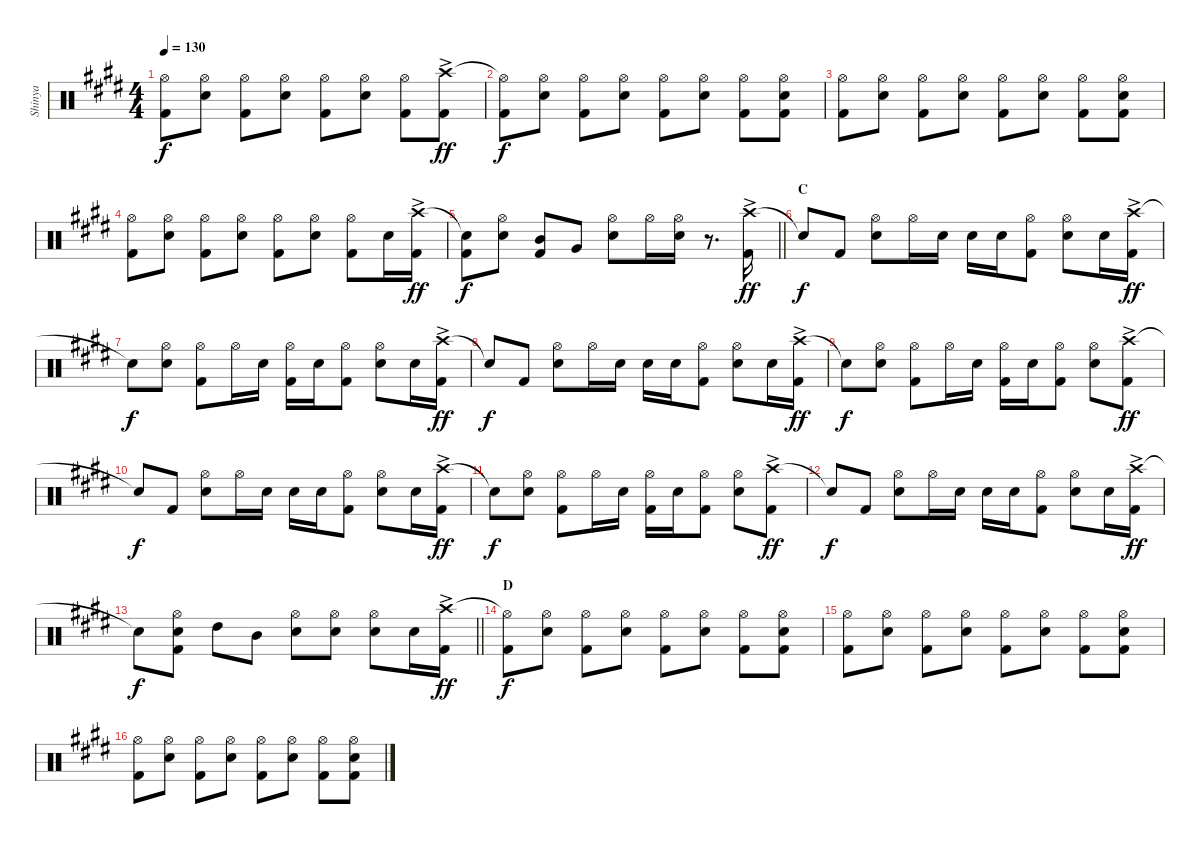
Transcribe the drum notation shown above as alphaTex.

\track ("Shinya" "Shinya") {instrument percussion}
\staff {score}
\articulation defaults
\ts (4 4)
\tempo 130
\clef neutral
\ks c#minor
("Hi-Hat (open)" "Kick (hit) 2").8{dy f} ("Hi-Hat (open)" "Snare (hit) 2").8 ("Hi-Hat (open)" "Kick (hit) 2").8 ("Hi-Hat (open)" "Snare (hit) 2").8 ("Hi-Hat (open)" "Kick (hit) 2").8 ("Hi-Hat (open)" "Snare (hit) 2").8 ("Hi-Hat (open)" "Kick (hit) 2").8 ("Crash high (hit)"{ac} "Kick (hit) 2").8{dy ff} |
("Hi-Hat (open)"{t} "Kick (hit) 2").8{dy f} ("Hi-Hat (open)" "Snare (hit) 2").8 ("Hi-Hat (open)" "Kick (hit) 2").8 ("Hi-Hat (open)" "Snare (hit) 2").8 ("Hi-Hat (open)" "Kick (hit) 2").8 ("Hi-Hat (open)" "Snare (hit) 2").8 ("Hi-Hat (open)" "Kick (hit) 2").8 ("Hi-Hat (open)" "Snare (hit) 2" "Kick (hit) 2").8 |
("Hi-Hat (open)" "Kick (hit) 2").8 ("Hi-Hat (open)" "Snare (hit) 2").8 ("Hi-Hat (open)" "Kick (hit) 2").8 ("Hi-Hat (open)" "Snare (hit) 2").8 ("Hi-Hat (open)" "Kick (hit) 2").8 ("Hi-Hat (open)" "Snare (hit) 2").8 ("Hi-Hat (open)" "Kick (hit) 2").8 ("Hi-Hat (open)" "Snare (hit) 2" "Kick (hit) 2").8 |
("Hi-Hat (open)" "Kick (hit) 2").8 ("Hi-Hat (open)" "Snare (hit) 2").8 ("Hi-Hat (open)" "Kick (hit) 2").8 ("Hi-Hat (open)" "Snare (hit) 2").8 ("Hi-Hat (open)" "Kick (hit) 2").8 ("Hi-Hat (open)" "Snare (hit) 2").8 ("Hi-Hat (open)" "Kick (hit) 2").8 "Snare (hit) 2".16 ("Crash high (hit)"{ac} "Kick (hit) 2").16{dy ff} |
\barLineRight lightlight
("Snare (hit)"{t} "Kick (hit) 2").8{dy f} ("Hi-Hat (open)" "Snare (hit) 2").8 ("Mid Tom (hit)" "Kick (hit) 2").8 "Very Low Tom (hit)".8 ("Hi-Hat (open)" "Snare (hit) 2").8 "Hi-Hat (open)".16 ("Hi-Hat (open)" "Snare (hit) 2").16 r.8{d} ("Crash high (hit)"{ac} "Kick (hit) 2").16{dy ff} |
\section ("" "C")
"Snare (hit)"{t}.8{dy f} "Kick (hit) 2".8 ("Hi-Hat (open)" "Snare (hit) 2").8 "Hi-Hat (open)".16 "Snare (hit) 2".16 "Snare (hit) 2".16 "Snare (hit) 2".16 ("Hi-Hat (open)" "Kick (hit) 2").8 ("Hi-Hat (open)" "Snare (hit) 2").8 "Snare (hit) 2".16 ("Crash high (hit)"{ac} "Kick (hit) 2").16{dy ff} |
"Snare (hit)"{t}.8{dy f} ("Hi-Hat (open)" "Snare (hit) 2").8 ("Hi-Hat (open)" "Kick (hit) 2").8 "Hi-Hat (open)".16 "Snare (hit) 2".16 ("Hi-Hat (open)" "Kick (hit) 2").16 "Snare (hit) 2".16 ("Hi-Hat (open)" "Kick (hit) 2").8 ("Hi-Hat (open)" "Snare (hit) 2").8 "Snare (hit) 2".16 ("Crash high (hit)"{ac} "Kick (hit) 2").16{dy ff} |
"Snare (hit)"{t}.8{dy f} "Kick (hit) 2".8 ("Hi-Hat (open)" "Snare (hit) 2").8 "Hi-Hat (open)".16 "Snare (hit) 2".16 "Snare (hit) 2".16 "Snare (hit) 2".16 ("Hi-Hat (open)" "Kick (hit) 2").8 ("Hi-Hat (open)" "Snare (hit) 2").8 "Snare (hit) 2".16 ("Crash high (hit)"{ac} "Kick (hit) 2").16{dy ff} |
"Snare (hit)"{t}.8{dy f} ("Hi-Hat (open)" "Snare (hit) 2").8 ("Hi-Hat (open)" "Kick (hit) 2").8 "Hi-Hat (open)".16 "Snare (hit) 2".16 ("Hi-Hat (open)" "Kick (hit) 2").16 "Snare (hit) 2".16 ("Hi-Hat (open)" "Kick (hit) 2").8 ("Hi-Hat (open)" "Snare (hit) 2").8 ("Crash high (hit)"{ac} "Kick (hit) 2").8{dy ff} |
"Snare (hit)"{t}.8{dy f} "Kick (hit) 2".8 ("Hi-Hat (open)" "Snare (hit) 2").8 "Hi-Hat (open)".16 "Snare (hit) 2".16 "Snare (hit) 2".16 "Snare (hit) 2".16 ("Hi-Hat (open)" "Kick (hit) 2").8 ("Hi-Hat (open)" "Snare (hit) 2").8 "Snare (hit) 2".16 ("Crash high (hit)"{ac} "Kick (hit) 2").16{dy ff} |
"Snare (hit)"{t}.8{dy f} ("Hi-Hat (open)" "Snare (hit) 2").8 ("Hi-Hat (open)" "Kick (hit) 2").8 "Hi-Hat (open)".16 "Snare (hit) 2".16 ("Hi-Hat (open)" "Kick (hit) 2").16 "Snare (hit) 2".16 ("Hi-Hat (open)" "Kick (hit) 2").8 ("Hi-Hat (open)" "Snare (hit) 2").8 ("Crash high (hit)"{ac} "Kick (hit) 2").8{dy ff} |
"Snare (hit)"{t}.8{dy f} "Kick (hit) 2".8 ("Hi-Hat (open)" "Snare (hit) 2").8 "Hi-Hat (open)".16 "Snare (hit) 2".16 "Snare (hit) 2".16 "Snare (hit) 2".16 ("Hi-Hat (open)" "Kick (hit) 2").8 ("Hi-Hat (open)" "Snare (hit) 2").8 "Snare (hit) 2".16 ("Crash high (hit)"{ac} "Kick (hit) 2").16{dy ff} |
\barLineRight lightlight "Snare (hit)"{t}.8{dy f}
("Hi-Hat (open)" "Snare (hit) 2" "Kick (hit) 2").8 "High Tom (hit)".8 "Mid Tom (hit)".8 ("Hi-Hat (open)" "Snare (hit) 2").8 ("Hi-Hat (open)" "Snare (hit) 2").8 ("Hi-Hat (open)" "Snare (hit) 2").8 "Snare (hit) 2".16 ("Crash high (hit)"{ac} "Kick (hit) 2").16{dy ff} |
\section ("" "D")
("Hi-Hat (open)"{t} "Kick (hit) 2").8{dy f} ("Hi-Hat (open)" "Snare (hit) 2").8 ("Hi-Hat (open)" "Kick (hit) 2").8 ("Hi-Hat (open)" "Snare (hit) 2").8 ("Hi-Hat (open)" "Kick (hit) 2").8 ("Hi-Hat (open)" "Snare (hit) 2").8 ("Hi-Hat (open)" "Kick (hit) 2").8 ("Hi-Hat (open)" "Snare (hit) 2" "Kick (hit) 2").8 |
("Hi-Hat (open)" "Kick (hit) 2").8 ("Hi-Hat (open)" "Snare (hit) 2").8 ("Hi-Hat (open)" "Kick (hit) 2").8 ("Hi-Hat (open)" "Snare (hit) 2").8 ("Hi-Hat (open)" "Kick (hit) 2").8 ("Hi-Hat (open)" "Snare (hit) 2").8 ("Hi-Hat (open)" "Kick (hit) 2").8 ("Hi-Hat (open)" "Snare (hit) 2" "Kick (hit) 2").8 |
("Hi-Hat (open)" "Kick (hit) 2").8 ("Hi-Hat (open)" "Snare (hit) 2").8 ("Hi-Hat (open)" "Kick (hit) 2").8 ("Hi-Hat (open)" "Snare (hit) 2").8 ("Hi-Hat (open)" "Kick (hit) 2").8 ("Hi-Hat (open)" "Snare (hit) 2").8 ("Hi-Hat (open)" "Kick (hit) 2").8 ("Hi-Hat (open)" "Snare (hit) 2" "Kick (hit) 2").8
